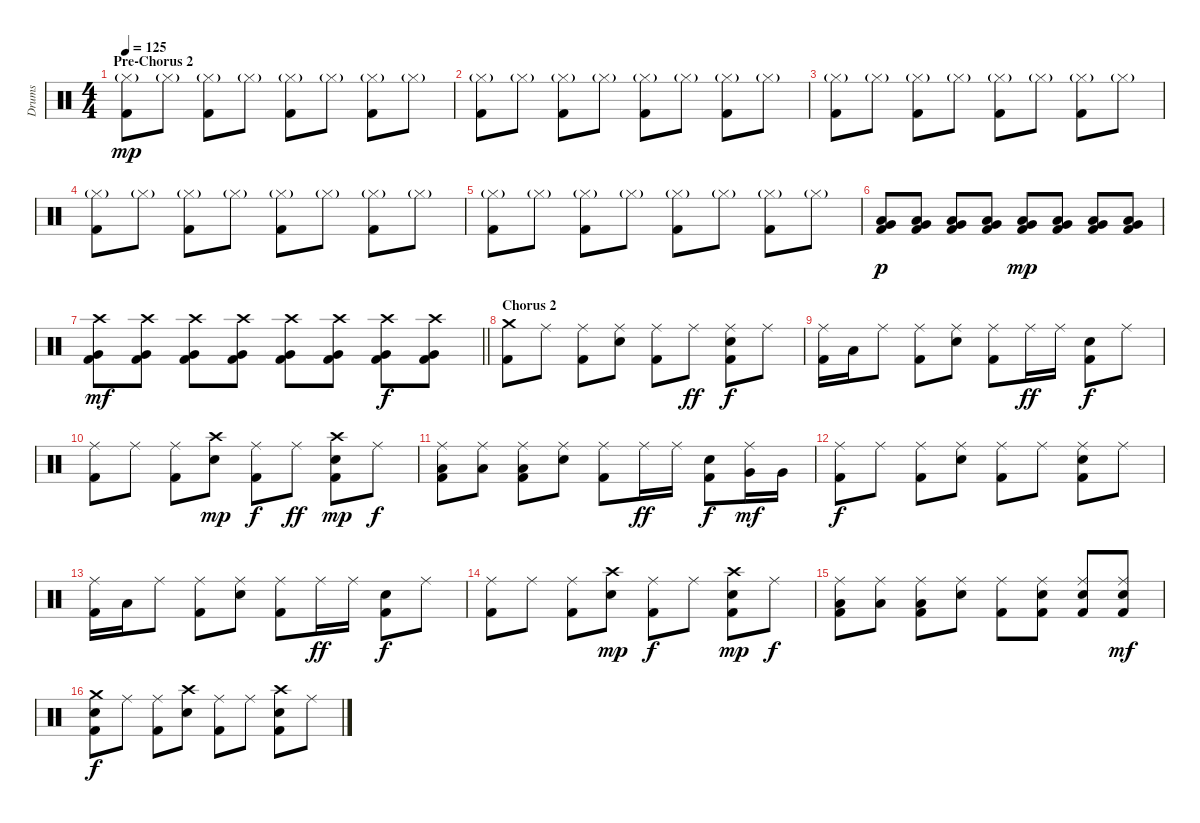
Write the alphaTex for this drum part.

\track ("Drums" "Drums") {instrument percussion}
\staff {score}
\articulation defaults
\ts (4 4)
\section ("" "Pre-Chorus 2")
\tempo 125
\clef neutral
\ks c
("Hi-Hat (closed)"{g} "Kick (hit) 2").8{dy mp} "Hi-Hat (closed)"{g}.8 ("Hi-Hat (closed)"{g} "Kick (hit) 2").8 "Hi-Hat (closed)"{g}.8 ("Hi-Hat (closed)"{g} "Kick (hit) 2").8 "Hi-Hat (closed)"{g}.8 ("Hi-Hat (closed)"{g} "Kick (hit) 2").8 "Hi-Hat (closed)"{g}.8 |
("Hi-Hat (closed)"{g} "Kick (hit) 2").8 "Hi-Hat (closed)"{g}.8 ("Hi-Hat (closed)"{g} "Kick (hit) 2").8 "Hi-Hat (closed)"{g}.8 ("Hi-Hat (closed)"{g} "Kick (hit) 2").8 "Hi-Hat (closed)"{g}.8 ("Hi-Hat (closed)"{g} "Kick (hit) 2").8 "Hi-Hat (closed)"{g}.8 |
("Hi-Hat (closed)"{g} "Kick (hit) 2").8 "Hi-Hat (closed)"{g}.8 ("Hi-Hat (closed)"{g} "Kick (hit) 2").8 "Hi-Hat (closed)"{g}.8 ("Hi-Hat (closed)"{g} "Kick (hit) 2").8 "Hi-Hat (closed)"{g}.8 ("Hi-Hat (closed)"{g} "Kick (hit) 2").8 "Hi-Hat (closed)"{g}.8 |
("Hi-Hat (closed)"{g} "Kick (hit) 2").8 "Hi-Hat (closed)"{g}.8 ("Hi-Hat (closed)"{g} "Kick (hit) 2").8 "Hi-Hat (closed)"{g}.8 ("Hi-Hat (closed)"{g} "Kick (hit) 2").8 "Hi-Hat (closed)"{g}.8 ("Hi-Hat (closed)"{g} "Kick (hit) 2").8 "Hi-Hat (closed)"{g}.8 |
("Hi-Hat (closed)"{g} "Kick (hit) 2").8 "Hi-Hat (closed)"{g}.8 ("Hi-Hat (closed)"{g} "Kick (hit) 2").8 "Hi-Hat (closed)"{g}.8 ("Hi-Hat (closed)"{g} "Kick (hit) 2").8 "Hi-Hat (closed)"{g}.8 ("Hi-Hat (closed)"{g} "Kick (hit) 2").8 "Hi-Hat (closed)"{g}.8 |
("Low Tom (hit)" "Very Low Tom (hit)" "Kick (hit) 2").8{dy p} ("Low Tom (hit)" "Very Low Tom (hit)" "Kick (hit) 2").8 ("Low Tom (hit)" "Very Low Tom (hit)" "Kick (hit) 2").8 ("Low Tom (hit)" "Very Low Tom (hit)" "Kick (hit) 2").8 ("Low Tom (hit)" "Very Low Tom (hit)" "Kick (hit) 2").8{dy mp} ("Low Tom (hit)" "Very Low Tom (hit)" "Kick (hit) 2").8 ("Low Tom (hit)" "Very Low Tom (hit)" "Kick (hit) 2").8 ("Low Tom (hit)" "Very Low Tom (hit)" "Kick (hit) 2").8 |
\barLineRight lightlight
("Crash high (hit)" "Very Low Tom (hit)" "Kick (hit) 2").8{dy mf} ("Crash high (hit)" "Very Low Tom (hit)" "Kick (hit) 2").8 ("Crash high (hit)" "Very Low Tom (hit)" "Kick (hit) 2").8 ("Crash high (hit)" "Very Low Tom (hit)" "Kick (hit) 2").8 ("Crash high (hit)" "Very Low Tom (hit)" "Kick (hit) 2").8 ("Crash high (hit)" "Very Low Tom (hit)" "Kick (hit) 2").8 ("Crash high (hit)" "Very Low Tom (hit)" "Kick (hit) 2").8{dy f} ("Crash high (hit)" "Very Low Tom (hit)" "Kick (hit) 2").8 |
\section ("" "Chorus 2")
("Crash medium (hit)" "Kick (hit) 2").8 "Ride (middle)".8 ("Ride (middle)" "Kick (hit) 2").8 ("Ride (middle)" "Electric Snare (hit)").8 ("Ride (middle)" "Kick (hit) 2").8 "Ride (middle)".8{dy ff} ("Ride (middle)" "Electric Snare (hit)" "Kick (hit) 2").8{dy f} "Ride (middle)".8 |
("Ride (middle)" "Kick (hit) 2").16 "Low Tom (hit)".16 "Ride (middle)".8 ("Ride (middle)" "Kick (hit) 2").8 ("Ride (middle)" "Electric Snare (hit)").8 ("Ride (middle)" "Kick (hit) 2").8 "Ride (middle)".16{dy ff} "Ride (middle)".16 ("Electric Snare (hit)" "Kick (hit) 2").8{dy f} "Ride (middle)".8 |
("Ride (middle)" "Kick (hit) 2").8 "Ride (middle)".8 ("Ride (middle)" "Kick (hit) 2").8 ("Crash high (hit)" "Electric Snare (hit)").8{dy mp} ("Ride (middle)" "Kick (hit) 2").8{dy f} "Ride (middle)".8{dy ff} ("Crash high (hit)" "Electric Snare (hit)" "Kick (hit) 2").8{dy mp} "Ride (middle)".8{dy f} |
("Ride (middle)" "Low Tom (hit)" "Kick (hit) 2").8 ("Ride (middle)" "Low Tom (hit)").8 ("Ride (middle)" "Low Tom (hit)" "Kick (hit) 2").8 ("Ride (middle)" "Electric Snare (hit)").8 ("Ride (middle)" "Kick (hit) 2").8 "Ride (middle)".16{dy ff} "Ride (middle)".16 ("Electric Snare (hit)" "Kick (hit) 2").8{dy f} ("Ride (middle)" "Very Low Tom (hit)").16{dy mf} "Very Low Tom (hit)".16 |
("Ride (middle)" "Kick (hit) 2").8{dy f} "Ride (middle)".8 ("Ride (middle)" "Kick (hit) 2").8 ("Ride (middle)" "Electric Snare (hit)").8 ("Ride (middle)" "Kick (hit) 2").8 "Ride (middle)".8 ("Ride (middle)" "Electric Snare (hit)" "Kick (hit) 2").8 "Ride (middle)".8 |
("Ride (middle)" "Kick (hit) 2").16 "Low Tom (hit)".16 "Ride (middle)".8 ("Ride (middle)" "Kick (hit) 2").8 ("Ride (middle)" "Electric Snare (hit)").8 ("Ride (middle)" "Kick (hit) 2").8 "Ride (middle)".16{dy ff} "Ride (middle)".16 ("Electric Snare (hit)" "Kick (hit) 2").8{dy f} "Ride (middle)".8 |
("Ride (middle)" "Kick (hit) 2").8 "Ride (middle)".8 ("Ride (middle)" "Kick (hit) 2").8 ("Crash high (hit)" "Electric Snare (hit)").8{dy mp} ("Ride (middle)" "Kick (hit) 2").8{dy f} "Ride (middle)".8 ("Crash high (hit)" "Electric Snare (hit)" "Kick (hit) 2").8{dy mp} "Ride (middle)".8{dy f} |
("Ride (middle)" "Low Tom (hit)" "Kick (hit) 2").8 ("Ride (middle)" "Low Tom (hit)").8 ("Ride (middle)" "Low Tom (hit)" "Kick (hit) 2").8 ("Ride (middle)" "Electric Snare (hit)").8 ("Ride (middle)" "Kick (hit) 2").8 ("Ride (middle)" "Electric Snare (hit)" "Kick (hit) 2").8 ("Ride (middle)" "Electric Snare (hit)" "Kick (hit) 2").8 ("Ride (middle)" "Electric Snare (hit)" "Kick (hit) 2").8{dy mf} |
("Crash medium (hit)" "Electric Snare (hit)" "Kick (hit) 2").8{dy f} "Ride (middle)".8 ("Ride (middle)" "Kick (hit) 2").8 ("Crash high (hit)" "Electric Snare (hit)").8 ("Ride (middle)" "Kick (hit) 2").8 "Ride (middle)".8 ("Crash high (hit)" "Electric Snare (hit)" "Kick (hit) 2").8 "Ride (middle)".8
